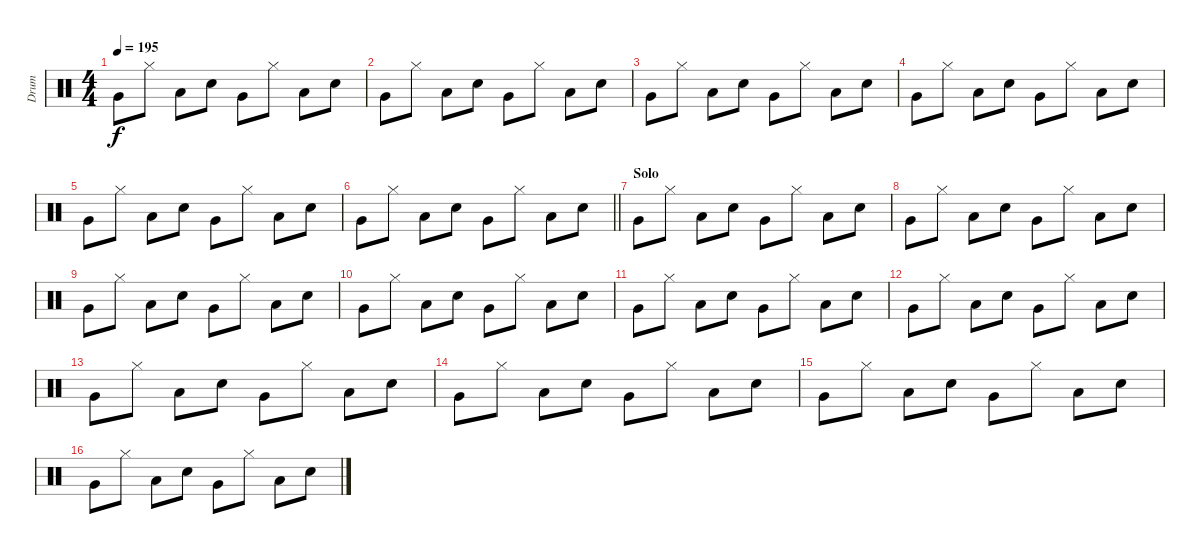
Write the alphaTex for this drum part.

\track ("Drum" "Drum") {instrument percussion}
\staff {score}
\articulation defaults
\ts (4 4)
\tempo 195
\clef neutral
\ks c "Very Low Tom (hit)".8{dy f} "Hi-Hat (closed)".8 "Low Floor Tom (hit)".8 "Electric Snare (hit)".8 "Very Low Tom (hit)".8 "Hi-Hat (closed)".8 "Low Floor Tom (hit)".8 "Electric Snare (hit)".8
|
"Very Low Tom (hit)".8 "Hi-Hat (closed)".8 "Low Floor Tom (hit)".8 "Electric Snare (hit)".8 "Very Low Tom (hit)".8 "Hi-Hat (closed)".8 "Low Floor Tom (hit)".8 "Electric Snare (hit)".8 |
"Very Low Tom (hit)".8 "Hi-Hat (closed)".8 "Low Floor Tom (hit)".8 "Electric Snare (hit)".8 "Very Low Tom (hit)".8 "Hi-Hat (closed)".8 "Low Floor Tom (hit)".8 "Electric Snare (hit)".8 |
"Very Low Tom (hit)".8 "Hi-Hat (closed)".8 "Low Floor Tom (hit)".8 "Electric Snare (hit)".8 "Very Low Tom (hit)".8 "Hi-Hat (closed)".8 "Low Floor Tom (hit)".8 "Electric Snare (hit)".8 |
"Very Low Tom (hit)".8 "Hi-Hat (closed)".8 "Low Floor Tom (hit)".8 "Electric Snare (hit)".8 "Very Low Tom (hit)".8 "Hi-Hat (closed)".8 "Low Floor Tom (hit)".8 "Electric Snare (hit)".8 |
\barLineRight lightlight "Very Low Tom (hit)".8 "Hi-Hat (closed)".8 "Low Floor Tom (hit)".8 "Electric Snare (hit)".8 "Very Low Tom (hit)".8 "Hi-Hat (closed)".8 "Low Floor Tom (hit)".8 "Electric Snare (hit)".8
|
\section ("" "Solo")
"Very Low Tom (hit)".8 "Hi-Hat (closed)".8 "Low Floor Tom (hit)".8 "Electric Snare (hit)".8 "Very Low Tom (hit)".8 "Hi-Hat (closed)".8 "Low Floor Tom (hit)".8 "Electric Snare (hit)".8 |
"Very Low Tom (hit)".8 "Hi-Hat (closed)".8 "Low Floor Tom (hit)".8 "Electric Snare (hit)".8 "Very Low Tom (hit)".8 "Hi-Hat (closed)".8 "Low Floor Tom (hit)".8 "Electric Snare (hit)".8 |
"Very Low Tom (hit)".8 "Hi-Hat (closed)".8 "Low Floor Tom (hit)".8 "Electric Snare (hit)".8 "Very Low Tom (hit)".8 "Hi-Hat (closed)".8 "Low Floor Tom (hit)".8 "Electric Snare (hit)".8 |
"Very Low Tom (hit)".8 "Hi-Hat (closed)".8 "Low Floor Tom (hit)".8 "Electric Snare (hit)".8 "Very Low Tom (hit)".8 "Hi-Hat (closed)".8 "Low Floor Tom (hit)".8 "Electric Snare (hit)".8 |
"Very Low Tom (hit)".8 "Hi-Hat (closed)".8 "Low Floor Tom (hit)".8 "Electric Snare (hit)".8 "Very Low Tom (hit)".8 "Hi-Hat (closed)".8 "Low Floor Tom (hit)".8 "Electric Snare (hit)".8 |
"Very Low Tom (hit)".8 "Hi-Hat (closed)".8 "Low Floor Tom (hit)".8 "Electric Snare (hit)".8 "Very Low Tom (hit)".8 "Hi-Hat (closed)".8 "Low Floor Tom (hit)".8 "Electric Snare (hit)".8 |
"Very Low Tom (hit)".8 "Hi-Hat (closed)".8 "Low Floor Tom (hit)".8 "Electric Snare (hit)".8 "Very Low Tom (hit)".8 "Hi-Hat (closed)".8 "Low Floor Tom (hit)".8 "Electric Snare (hit)".8 |
"Very Low Tom (hit)".8 "Hi-Hat (closed)".8 "Low Floor Tom (hit)".8 "Electric Snare (hit)".8 "Very Low Tom (hit)".8 "Hi-Hat (closed)".8 "Low Floor Tom (hit)".8 "Electric Snare (hit)".8 |
"Very Low Tom (hit)".8 "Hi-Hat (closed)".8 "Low Floor Tom (hit)".8 "Electric Snare (hit)".8 "Very Low Tom (hit)".8 "Hi-Hat (closed)".8 "Low Floor Tom (hit)".8 "Electric Snare (hit)".8 |
"Very Low Tom (hit)".8 "Hi-Hat (closed)".8 "Low Floor Tom (hit)".8 "Electric Snare (hit)".8 "Very Low Tom (hit)".8 "Hi-Hat (closed)".8 "Low Floor Tom (hit)".8 "Electric Snare (hit)".8
